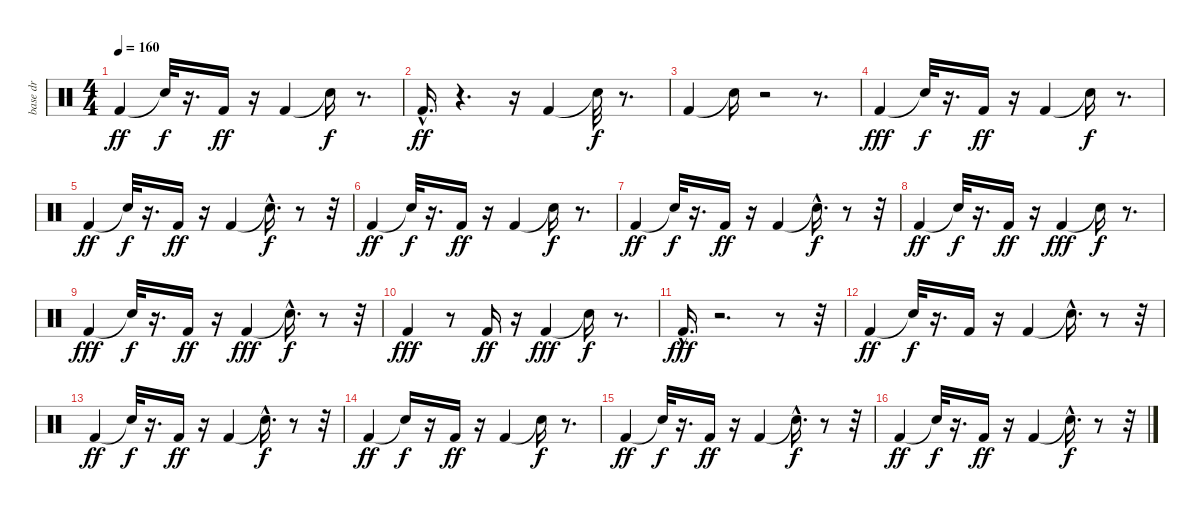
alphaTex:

\track ("base dr" "base dr") {instrument percussion}
\staff {score}
\articulation defaults
\ts (4 4)
\tempo 160
\clef neutral
\ks c "Kick (hit) 2".4{dy ff} "Snare (hit)"{t}.32{dy f}
r.16{d} "Kick (hit) 2".16{dy ff} r.16 "Kick (hit) 2".4 "Snare (hit)"{t}.16{dy f} r.8{d} |
"Kick (hit) 2"{hac}.16{d dy ff} r.4{d} r.16 "Kick (hit) 2".4 "Snare (hit)"{t}.32{dy f} r.8{d} |
"Kick (hit) 2".4 "Snare (hit)"{t}.16 r.2 r.8{d} |
"Kick (hit) 2".4{dy fff} "Snare (hit)"{t}.32{dy f} r.16{d} "Kick (hit) 2".16{dy ff} r.16 "Kick (hit) 2".4 "Snare (hit)"{t}.16{dy f} r.8{d} |
"Kick (hit) 2".4{dy ff} "Snare (hit)"{t}.32{dy f} r.16{d} "Kick (hit) 2".16{dy ff} r.16 "Kick (hit) 2".4 "Snare (hit)"{hac t}.16{d dy f} r.8 r.32 |
"Kick (hit) 2".4{dy ff} "Snare (hit)"{t}.32{dy f} r.16{d} "Kick (hit) 2".16{dy ff} r.16 "Kick (hit) 2".4 "Snare (hit)"{t}.16{dy f} r.8{d} |
"Kick (hit) 2".4{dy ff} "Snare (hit)"{t}.32{dy f} r.16{d} "Kick (hit) 2".16{dy ff} r.16 "Kick (hit) 2".4 "Snare (hit)"{hac t}.16{d dy f} r.8 r.32 |
"Kick (hit) 2".4{dy ff} "Snare (hit)"{t}.32{dy f} r.16{d} "Kick (hit) 2".16{dy ff} r.16 "Kick (hit) 2".4{dy fff} "Snare (hit)"{t}.16{dy f} r.8{d} |
"Kick (hit) 2".4{dy fff} "Snare (hit)"{t}.32{dy f} r.16{d} "Kick (hit) 2".16{dy ff} r.16 "Kick (hit) 2".4{dy fff} "Snare (hit)"{hac t}.16{d dy f} r.8 r.32 |
"Kick (hit) 2".4{dy fff} r.8 "Kick (hit) 2".16{dy ff} r.16 "Kick (hit) 2".4{dy fff} "Snare (hit)"{t}.16{dy f} r.8{d} |
"Kick (hit) 2"{hac}.16{d dy fff} r.2{d} r.8 r.32 |
"Kick (hit) 2".4{dy ff} "Snare (hit)"{t}.32{dy f} r.16{d} "Kick (hit) 2".16 r.16 "Kick (hit) 2".4 "Snare (hit)"{hac t}.16{d} r.8 r.32 |
"Kick (hit) 2".4{dy ff} "Snare (hit)"{t}.32{dy f} r.16{d} "Kick (hit) 2".16{dy ff} r.16 "Kick (hit) 2".4 "Snare (hit)"{hac t}.16{d dy f} r.8 r.32 |
"Kick (hit) 2".4{dy ff} "Snare (hit)"{t}.16{dy f} r.16 "Kick (hit) 2".16{dy ff} r.16 "Kick (hit) 2".4 "Snare (hit)"{t}.16{dy f} r.8{d} |
"Kick (hit) 2".4{dy ff} "Snare (hit)"{t}.32{dy f} r.16{d} "Kick (hit) 2".16{dy ff} r.16 "Kick (hit) 2".4 "Snare (hit)"{hac t}.16{d dy f} r.8 r.32 |
"Kick (hit) 2".4{dy ff} "Snare (hit)"{t}.32{dy f} r.16{d} "Kick (hit) 2".16{dy ff} r.16 "Kick (hit) 2".4 "Snare (hit)"{hac t}.16{d dy f} r.8 r.32
